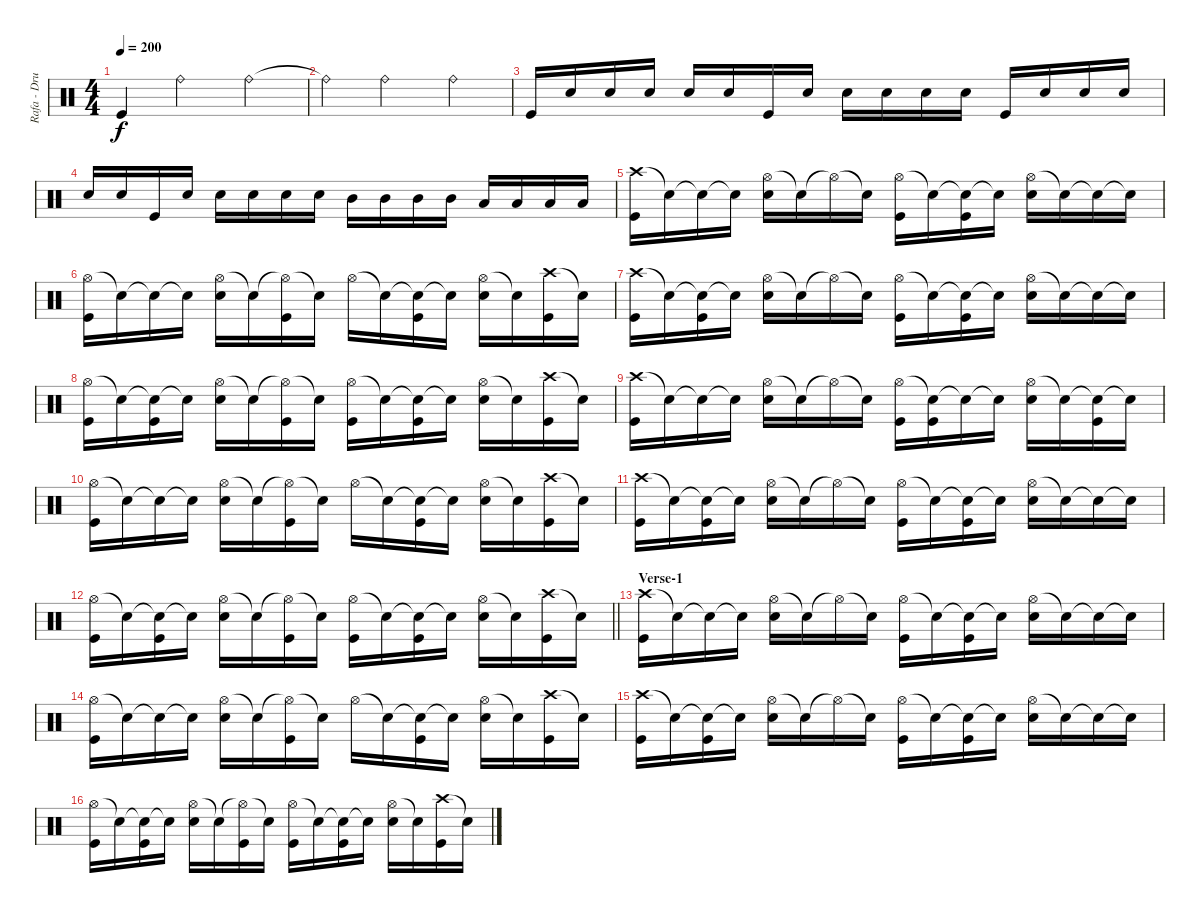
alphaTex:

\track ("Rafa - Drums" "Rafa - Dru") {instrument percussion}
\staff {score}
\articulation defaults
\ts (4 4)
\tempo 200
\clef neutral
\ks c "Kick (hit)".4{dy f} "Ride (bell)".2 "Ride (bell)".4
|
"Ride (bell)"{t}.4 "Ride (bell)".2 "Ride (bell)".4 |
"Kick (hit)".16 "Electric Snare (hit)".16 "Electric Snare (hit)".16 "Electric Snare (hit)".16 "Electric Snare (hit)".16 "Electric Snare (hit)".16 "Kick (hit)".16 "Electric Snare (hit)".16 "Electric Snare (hit)".16 "Electric Snare (hit)".16 "Electric Snare (hit)".16 "Electric Snare (hit)".16 "Kick (hit)".16 "Electric Snare (hit)".16 "Electric Snare (hit)".16 "Electric Snare (hit)".16 |
"Electric Snare (hit)".16 "Electric Snare (hit)".16 "Kick (hit)".16 "Electric Snare (hit)".16 "Electric Snare (hit)".16 "Electric Snare (hit)".16 "Electric Snare (hit)".16 "Electric Snare (hit)".16 "Mid Tom (hit)".16 "Mid Tom (hit)".16 "Mid Tom (hit)".16 "Mid Tom (hit)".16 "Low Tom (hit)".16 "Low Tom (hit)".16 "Low Tom (hit)".16 "Low Tom (hit)".16 |
("Crash high (hit)" "Kick (hit)").16 "Snare (hit)"{t}.16 "Snare (hit)"{t}.16 "Snare (hit)"{t}.16 ("Hi-Hat (open)" "Electric Snare (hit)").16 "Snare (hit)"{t}.16 "Hi-Hat (open)"{t}.16 "Snare (hit)"{t}.16 ("Hi-Hat (open)" "Kick (hit)").16 "Snare (hit)"{t}.16 ("Snare (hit)"{t} "Kick (hit)").16 "Snare (hit)"{t}.16 ("Hi-Hat (open)" "Electric Snare (hit)").16 "Snare (hit)"{t}.16 "Snare (hit)"{t}.16 "Snare (hit)"{t}.16 |
("Hi-Hat (open)" "Kick (hit)").16 "Snare (hit)"{t}.16 "Snare (hit)"{t}.16 "Snare (hit)"{t}.16 ("Hi-Hat (open)" "Electric Snare (hit)").16 "Snare (hit)"{t}.16 ("Hi-Hat (open)"{t} "Kick (hit)").16 "Snare (hit)"{t}.16 "Hi-Hat (open)".16 "Snare (hit)"{t}.16 ("Snare (hit)"{t} "Kick (hit)").16 "Snare (hit)"{t}.16 ("Hi-Hat (open)" "Electric Snare (hit)").16 "Snare (hit)"{t}.16 ("Crash high (hit)" "Kick (hit)").16 "Snare (hit)"{t}.16 |
("Crash high (hit)" "Kick (hit)").16 "Snare (hit)"{t}.16 ("Snare (hit)"{t} "Kick (hit)").16 "Snare (hit)"{t}.16 ("Hi-Hat (open)" "Electric Snare (hit)").16 "Snare (hit)"{t}.16 "Hi-Hat (open)"{t}.16 "Snare (hit)"{t}.16 ("Hi-Hat (open)" "Kick (hit)").16 "Snare (hit)"{t}.16 ("Snare (hit)"{t} "Kick (hit)").16 "Snare (hit)"{t}.16 ("Hi-Hat (open)" "Electric Snare (hit)").16 "Snare (hit)"{t}.16 "Snare (hit)"{t}.16 "Snare (hit)"{t}.16 |
("Hi-Hat (open)" "Kick (hit)").16 "Snare (hit)"{t}.16 ("Snare (hit)"{t} "Kick (hit)").16 "Snare (hit)"{t}.16 ("Hi-Hat (open)" "Electric Snare (hit)").16 "Snare (hit)"{t}.16 ("Hi-Hat (open)"{t} "Kick (hit)").16 "Snare (hit)"{t}.16 ("Hi-Hat (open)" "Kick (hit)").16 "Snare (hit)"{t}.16 ("Snare (hit)"{t} "Kick (hit)").16 "Snare (hit)"{t}.16 ("Hi-Hat (open)" "Electric Snare (hit)").16 "Snare (hit)"{t}.16 ("Crash high (hit)" "Kick (hit)").16 "Snare (hit)"{t}.16 |
("Crash high (hit)" "Kick (hit)").16 "Snare (hit)"{t}.16 "Snare (hit)"{t}.16 "Snare (hit)"{t}.16 ("Hi-Hat (open)" "Electric Snare (hit)").16 "Snare (hit)"{t}.16 "Hi-Hat (open)"{t}.16 "Snare (hit)"{t}.16 ("Hi-Hat (open)" "Kick (hit)").16 ("Snare (hit)"{t} "Kick (hit)").16 "Snare (hit)"{t}.16 "Snare (hit)"{t}.16 ("Hi-Hat (open)" "Electric Snare (hit)").16 "Snare (hit)"{t}.16 ("Snare (hit)"{t} "Kick (hit)").16 "Snare (hit)"{t}.16 |
("Hi-Hat (open)" "Kick (hit)").16 "Snare (hit)"{t}.16 "Snare (hit)"{t}.16 "Snare (hit)"{t}.16 ("Hi-Hat (open)" "Electric Snare (hit)").16 "Snare (hit)"{t}.16 ("Hi-Hat (open)"{t} "Kick (hit)").16 "Snare (hit)"{t}.16 "Hi-Hat (open)".16 "Snare (hit)"{t}.16 ("Snare (hit)"{t} "Kick (hit)").16 "Snare (hit)"{t}.16 ("Hi-Hat (open)" "Electric Snare (hit)").16 "Snare (hit)"{t}.16 ("Crash high (hit)" "Kick (hit)").16 "Snare (hit)"{t}.16 |
("Crash high (hit)" "Kick (hit)").16 "Snare (hit)"{t}.16 ("Snare (hit)"{t} "Kick (hit)").16 "Snare (hit)"{t}.16 ("Hi-Hat (open)" "Electric Snare (hit)").16 "Snare (hit)"{t}.16 "Hi-Hat (open)"{t}.16 "Snare (hit)"{t}.16 ("Hi-Hat (open)" "Kick (hit)").16 "Snare (hit)"{t}.16 ("Snare (hit)"{t} "Kick (hit)").16 "Snare (hit)"{t}.16 ("Hi-Hat (open)" "Electric Snare (hit)").16 "Snare (hit)"{t}.16 "Snare (hit)"{t}.16 "Snare (hit)"{t}.16 |
\barLineRight lightlight
("Hi-Hat (open)" "Kick (hit)").16 "Snare (hit)"{t}.16 ("Snare (hit)"{t} "Kick (hit)").16 "Snare (hit)"{t}.16 ("Hi-Hat (open)" "Electric Snare (hit)").16 "Snare (hit)"{t}.16 ("Hi-Hat (open)"{t} "Kick (hit)").16 "Snare (hit)"{t}.16 ("Hi-Hat (open)" "Kick (hit)").16 "Snare (hit)"{t}.16 ("Snare (hit)"{t} "Kick (hit)").16 "Snare (hit)"{t}.16 ("Hi-Hat (open)" "Electric Snare (hit)").16 "Snare (hit)"{t}.16 ("Crash high (hit)" "Kick (hit)").16 "Snare (hit)"{t}.16 |
\section ("" "Verse-1")
("Crash high (hit)" "Kick (hit)").16 "Snare (hit)"{t}.16 "Snare (hit)"{t}.16 "Snare (hit)"{t}.16 ("Hi-Hat (open)" "Electric Snare (hit)").16 "Snare (hit)"{t}.16 "Hi-Hat (open)"{t}.16 "Snare (hit)"{t}.16 ("Hi-Hat (open)" "Kick (hit)").16 "Snare (hit)"{t}.16 ("Snare (hit)"{t} "Kick (hit)").16 "Snare (hit)"{t}.16 ("Hi-Hat (open)" "Electric Snare (hit)").16 "Snare (hit)"{t}.16 "Snare (hit)"{t}.16 "Snare (hit)"{t}.16 |
("Hi-Hat (open)" "Kick (hit)").16 "Snare (hit)"{t}.16 "Snare (hit)"{t}.16 "Snare (hit)"{t}.16 ("Hi-Hat (open)" "Electric Snare (hit)").16 "Snare (hit)"{t}.16 ("Hi-Hat (open)"{t} "Kick (hit)").16 "Snare (hit)"{t}.16 "Hi-Hat (open)".16 "Snare (hit)"{t}.16 ("Snare (hit)"{t} "Kick (hit)").16 "Snare (hit)"{t}.16 ("Hi-Hat (open)" "Electric Snare (hit)").16 "Snare (hit)"{t}.16 ("Crash high (hit)" "Kick (hit)").16 "Snare (hit)"{t}.16 |
("Crash high (hit)" "Kick (hit)").16 "Snare (hit)"{t}.16 ("Snare (hit)"{t} "Kick (hit)").16 "Snare (hit)"{t}.16 ("Hi-Hat (open)" "Electric Snare (hit)").16 "Snare (hit)"{t}.16 "Hi-Hat (open)"{t}.16 "Snare (hit)"{t}.16 ("Hi-Hat (open)" "Kick (hit)").16 "Snare (hit)"{t}.16 ("Snare (hit)"{t} "Kick (hit)").16 "Snare (hit)"{t}.16 ("Hi-Hat (open)" "Electric Snare (hit)").16 "Snare (hit)"{t}.16 "Snare (hit)"{t}.16 "Snare (hit)"{t}.16 |
("Hi-Hat (open)" "Kick (hit)").16 "Snare (hit)"{t}.16 ("Snare (hit)"{t} "Kick (hit)").16 "Snare (hit)"{t}.16 ("Hi-Hat (open)" "Electric Snare (hit)").16 "Snare (hit)"{t}.16 ("Hi-Hat (open)"{t} "Kick (hit)").16 "Snare (hit)"{t}.16 ("Hi-Hat (open)" "Kick (hit)").16 "Snare (hit)"{t}.16 ("Snare (hit)"{t} "Kick (hit)").16 "Snare (hit)"{t}.16 ("Hi-Hat (open)" "Electric Snare (hit)").16 "Snare (hit)"{t}.16 ("Crash high (hit)" "Kick (hit)").16 "Snare (hit)"{t}.16
